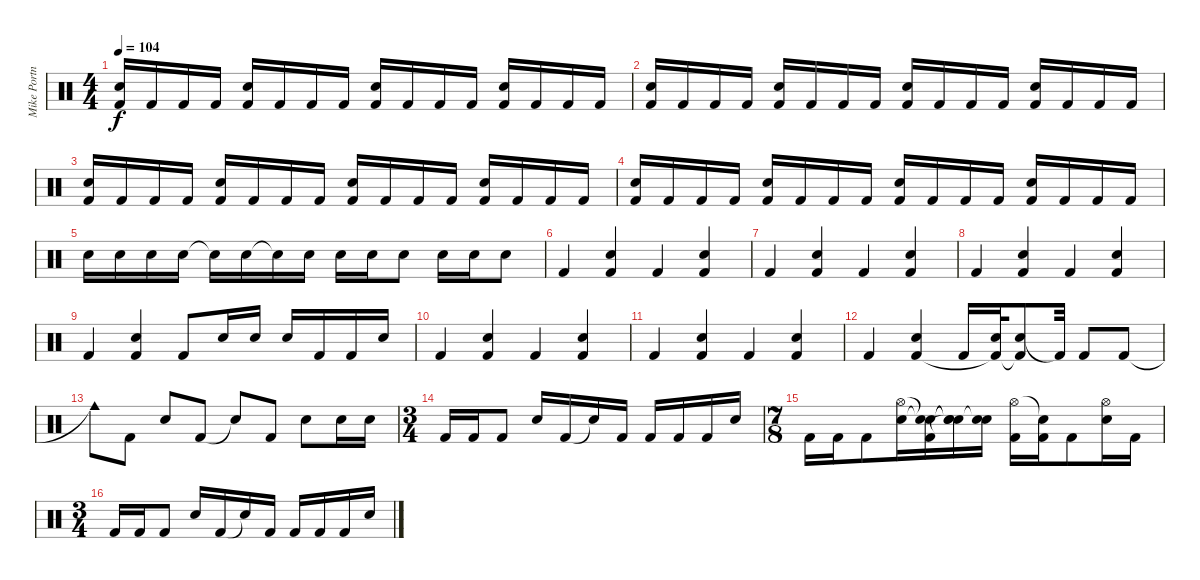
\track ("Mike Portnoy" "Mike Portn") {instrument percussion}
\staff {score}
\articulation defaults
\ts (4 4)
\tempo 104
\clef neutral
\ks c
("Snare (hit) 2" "Kick (hit) 2").16{dy f} "Kick (hit) 2".16 "Kick (hit) 2".16 "Kick (hit) 2".16 ("Snare (hit) 2" "Kick (hit) 2").16 "Kick (hit) 2".16 "Kick (hit) 2".16 "Kick (hit) 2".16 ("Snare (hit) 2" "Kick (hit) 2").16 "Kick (hit) 2".16 "Kick (hit) 2".16 "Kick (hit) 2".16 ("Snare (hit) 2" "Kick (hit) 2").16 "Kick (hit) 2".16 "Kick (hit) 2".16 "Kick (hit) 2".16 |
("Snare (hit) 2" "Kick (hit) 2").16 "Kick (hit) 2".16 "Kick (hit) 2".16 "Kick (hit) 2".16 ("Snare (hit) 2" "Kick (hit) 2").16 "Kick (hit) 2".16 "Kick (hit) 2".16 "Kick (hit) 2".16 ("Snare (hit) 2" "Kick (hit) 2").16 "Kick (hit) 2".16 "Kick (hit) 2".16 "Kick (hit) 2".16 ("Snare (hit) 2" "Kick (hit) 2").16 "Kick (hit) 2".16 "Kick (hit) 2".16 "Kick (hit) 2".16 |
("Snare (hit) 2" "Kick (hit) 2").16 "Kick (hit) 2".16 "Kick (hit) 2".16 "Kick (hit) 2".16 ("Snare (hit) 2" "Kick (hit) 2").16 "Kick (hit) 2".16 "Kick (hit) 2".16 "Kick (hit) 2".16 ("Snare (hit) 2" "Kick (hit) 2").16 "Kick (hit) 2".16 "Kick (hit) 2".16 "Kick (hit) 2".16 ("Snare (hit) 2" "Kick (hit) 2").16 "Kick (hit) 2".16 "Kick (hit) 2".16 "Kick (hit) 2".16 |
("Snare (hit) 2" "Kick (hit) 2").16 "Kick (hit) 2".16 "Kick (hit) 2".16 "Kick (hit) 2".16 ("Snare (hit) 2" "Kick (hit) 2").16 "Kick (hit) 2".16 "Kick (hit) 2".16 "Kick (hit) 2".16 ("Snare (hit) 2" "Kick (hit) 2").16 "Kick (hit) 2".16 "Kick (hit) 2".16 "Kick (hit) 2".16 ("Snare (hit) 2" "Kick (hit) 2").16 "Kick (hit) 2".16 "Kick (hit) 2".16 "Kick (hit) 2".16 |
"Snare (hit) 2".16 "Snare (hit) 2".16 "Snare (hit) 2".16 "Snare (hit) 2".16 "Snare (hit)"{t}.16 "Snare (hit) 2".16 "Snare (hit)"{t}.16 "Snare (hit) 2".16 "Snare (hit) 2".16 "Snare (hit) 2".16 "Snare (hit) 2".8 "Snare (hit) 2".16 "Snare (hit) 2".16 "Snare (hit) 2".8 |
"Kick (hit) 2".4 ("Snare (hit) 2" "Kick (hit) 2").4 "Kick (hit) 2".4 ("Snare (hit) 2" "Kick (hit) 2").4 |
"Kick (hit) 2".4 ("Snare (hit) 2" "Kick (hit) 2").4 "Kick (hit) 2".4 ("Snare (hit) 2" "Kick (hit) 2").4 |
"Kick (hit) 2".4 ("Snare (hit) 2" "Kick (hit) 2").4 "Kick (hit) 2".4 ("Snare (hit) 2" "Kick (hit) 2").4 |
"Kick (hit) 2".4 ("Snare (hit) 2" "Kick (hit) 2").4 "Kick (hit) 2".8 "Snare (hit) 2".16 "Snare (hit) 2".16 "Snare (hit) 2".16 "Kick (hit) 2".16 "Kick (hit) 2".16 "Snare (hit) 2".16 |
"Kick (hit) 2".4 ("Snare (hit) 2" "Kick (hit) 2").4 "Kick (hit) 2".4 ("Snare (hit) 2" "Kick (hit) 2").4 |
"Kick (hit) 2".4 ("Snare (hit) 2" "Kick (hit) 2").4 "Kick (hit) 2".4 ("Snare (hit) 2" "Kick (hit) 2").4 |
"Kick (hit) 2".4 ("Snare (hit) 2" "Kick (hit) 2").4 "Kick (hit) 2".16 ("Snare (hit) 2" "Kick (hit) 2"{t}).32 ("Snare (hit) 2" "Kick (hit) 2"{t}).8 "Kick (hit) 2"{t}.32 "Kick (hit) 2".8 "Kick (hit) 2".8 |
"Cowbell medium (hit)"{t}.8 "Kick (hit) 2".8 "Snare (hit) 2".8 "Kick (hit) 2".8 "Snare (hit)"{t}.8 "Kick (hit) 2".8 "Snare (hit) 2".8 "Snare (hit) 2".16 "Snare (hit) 2".16 |
\ts (3 4)
"Kick (hit) 2".16 "Kick (hit) 2".16 "Kick (hit) 2".8 "Snare (hit) 2".16 "Kick (hit) 2".16 "Snare (hit)"{t}.16 "Kick (hit) 2".16 "Kick (hit) 2".16 "Kick (hit) 2".16 "Kick (hit) 2".16 "Snare (hit) 2".16 |
\ts (7 8)
"Kick (hit) 2".16 "Kick (hit) 2".16 "Kick (hit) 2".8 ("Hi-Hat (open)" "Snare (hit) 2").16 ("Snare (hit)"{t} "Snare (hit)"{t} "Kick (hit) 2").16 ("Snare (hit)"{t} "Snare (hit)"{t} "Snare (hit)"{t}).16 ("Snare (hit)"{t} "Snare (hit) 2").16 ("Hi-Hat (open)" "Kick (hit) 2").16 ("Snare (hit)"{t} "Kick (hit) 2").16 "Kick (hit) 2".8 ("Hi-Hat (open)" "Snare (hit) 2").16 "Kick (hit) 2".16 |
\ts (3 4)
"Kick (hit) 2".16 "Kick (hit) 2".16 "Kick (hit) 2".8 "Snare (hit) 2".16 "Kick (hit) 2".16 "Snare (hit)"{t}.16 "Kick (hit) 2".16 "Kick (hit) 2".16 "Kick (hit) 2".16 "Kick (hit) 2".16 "Snare (hit) 2".16
